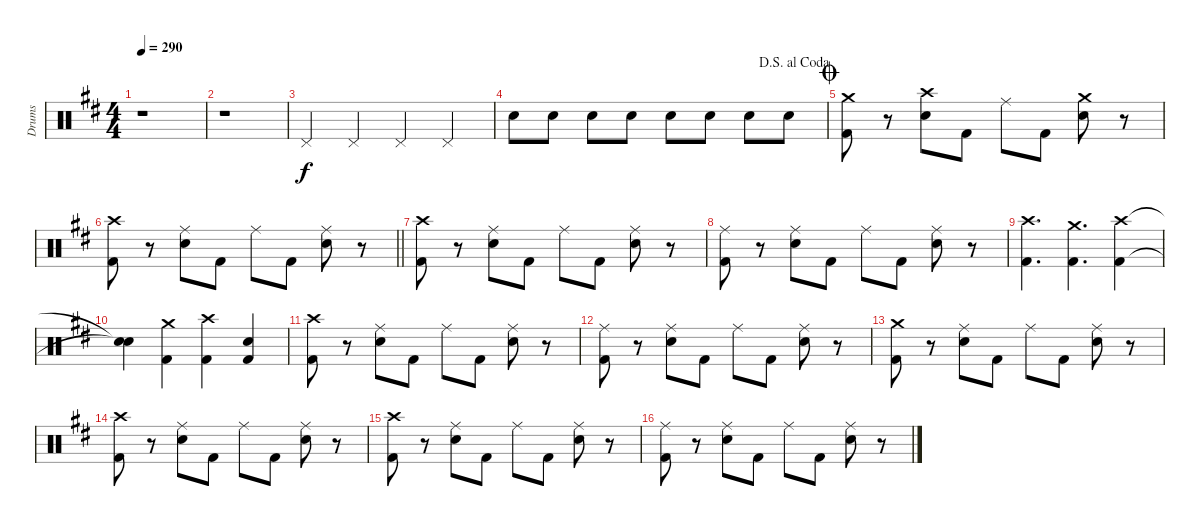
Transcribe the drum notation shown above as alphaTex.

\track ("Drums" "Drums") {instrument percussion}
\staff {score}
\articulation defaults
\ts (4 4)
\tempo 290
\clef neutral
\ks d
r.1{dy f} |
r.1 |
"Pedal Hi-Hat (hit)".4 "Pedal Hi-Hat (hit)".4 "Pedal Hi-Hat (hit)".4 "Pedal Hi-Hat (hit)".4 |
\jump dalsegnoalcoda "Electric Snare (hit)".8 "Electric Snare (hit)".8 "Electric Snare (hit)".8 "Electric Snare (hit)".8 "Electric Snare (hit)".8 "Electric Snare (hit)".8 "Electric Snare (hit)".8 "Electric Snare (hit)".8
|
\jump coda
("Crash medium (hit)" "Kick (hit) 2").8 r.8 ("Crash high (hit)" "Electric Snare (hit)").8 "Kick (hit) 2".8 "Ride (middle)".8 "Kick (hit) 2".8 ("Crash medium (hit)" "Electric Snare (hit)").8 r.8 |
\barLineRight lightlight
("Crash high (hit)" "Kick (hit) 2").8 r.8 ("Ride (middle)" "Electric Snare (hit)").8 "Kick (hit) 2".8 "Ride (middle)".8 "Kick (hit) 2".8 ("Ride (middle)" "Electric Snare (hit)").8 r.8 |
("Crash high (hit)" "Kick (hit) 2").8 r.8 ("Ride (middle)" "Electric Snare (hit)").8 "Kick (hit) 2".8 "Ride (middle)".8 "Kick (hit) 2".8 ("Ride (middle)" "Electric Snare (hit)").8 r.8 |
("Ride (middle)" "Kick (hit) 2").8 r.8 ("Ride (middle)" "Electric Snare (hit)").8 "Kick (hit) 2".8 "Ride (middle)".8 "Kick (hit) 2".8 ("Ride (middle)" "Electric Snare (hit)").8 r.8 |
("Crash high (hit)" "Kick (hit) 2").4{d} ("Crash medium (hit)" "Kick (hit) 2").4{d} ("Crash high (hit)" "Kick (hit) 2").4 |
("Snare (hit)"{t} "Snare (hit)"{t}).4 ("Crash medium (hit)" "Kick (hit) 2").4 ("Crash high (hit)" "Kick (hit) 2").4 ("Electric Snare (hit)" "Kick (hit) 2").4 |
("Crash high (hit)" "Kick (hit) 2").8 r.8 ("Ride (middle)" "Electric Snare (hit)").8 "Kick (hit) 2".8 "Ride (middle)".8 "Kick (hit) 2".8 ("Ride (middle)" "Electric Snare (hit)").8 r.8 |
("Ride (middle)" "Kick (hit) 2").8 r.8 ("Ride (middle)" "Electric Snare (hit)").8 "Kick (hit) 2".8 "Ride (middle)".8 "Kick (hit) 2".8 ("Ride (middle)" "Electric Snare (hit)").8 r.8 |
("Crash medium (hit)" "Kick (hit) 2").8 r.8 ("Ride (middle)" "Electric Snare (hit)").8 "Kick (hit) 2".8 "Ride (middle)".8 "Kick (hit) 2".8 ("Ride (middle)" "Electric Snare (hit)").8 r.8 |
("Crash high (hit)" "Kick (hit) 2").8 r.8 ("Ride (middle)" "Electric Snare (hit)").8 "Kick (hit) 2".8 "Ride (middle)".8 "Kick (hit) 2".8 ("Ride (middle)" "Electric Snare (hit)").8 r.8 |
("Crash high (hit)" "Kick (hit) 2").8 r.8 ("Ride (middle)" "Electric Snare (hit)").8 "Kick (hit) 2".8 "Ride (middle)".8 "Kick (hit) 2".8 ("Ride (middle)" "Electric Snare (hit)").8 r.8 |
("Ride (middle)" "Kick (hit) 2").8 r.8 ("Ride (middle)" "Electric Snare (hit)").8 "Kick (hit) 2".8 "Ride (middle)".8 "Kick (hit) 2".8 ("Ride (middle)" "Electric Snare (hit)").8 r.8
